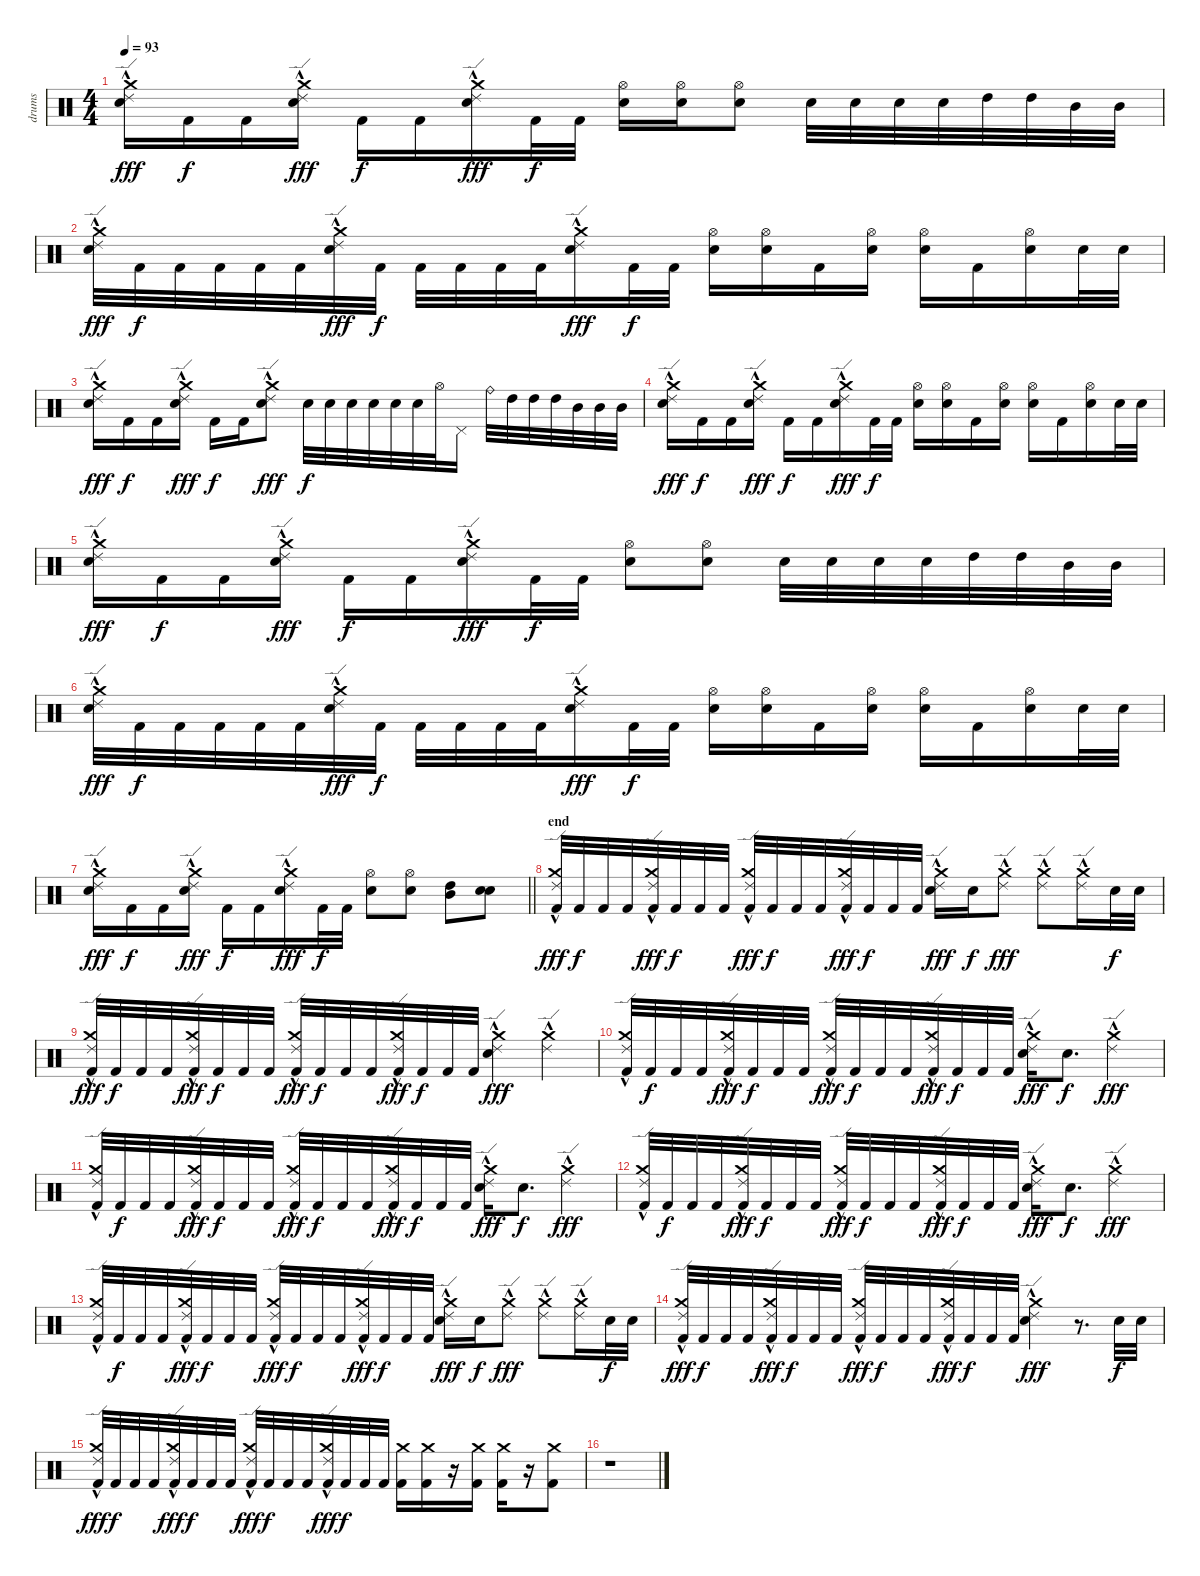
\track ("drums" "drums") {instrument percussion}
\staff {score}
\articulation defaults
\ts (4 4)
\tempo 93
\clef neutral
\ks c
("Electric Snare (hit)" "Ride (edge) 2"{hac} "Crash medium (hit)").16{dy fff} "Kick (hit) 2".16{dy f} "Kick (hit) 2".16 ("Electric Snare (hit)" "Ride (edge) 2"{hac} "Crash medium (hit)").16{dy fff} "Kick (hit) 2".16{dy f} "Kick (hit) 2".16 ("Electric Snare (hit)" "Ride (edge) 2"{hac} "Crash medium (hit)").16{dy fff} "Kick (hit) 2".32{dy f} "Kick (hit) 2".32 ("Electric Snare (hit)" "Hi-Hat (open)").16 ("Electric Snare (hit)" "Hi-Hat (open)").16 ("Electric Snare (hit)" "Hi-Hat (open)").8 "Electric Snare (hit)".32 "Electric Snare (hit)".32 "Electric Snare (hit)".32 "Electric Snare (hit)".32 "High Tom (hit)".32 "High Tom (hit)".32 "Mid Tom (hit)".32 "Mid Tom (hit)".32 |
("Electric Snare (hit)" "Ride (edge) 2"{hac} "Crash medium (hit)").32{dy fff} "Kick (hit) 2".32{dy f} "Kick (hit) 2".32 "Kick (hit) 2".32 "Kick (hit) 2".32 "Kick (hit) 2".32 ("Electric Snare (hit)" "Ride (edge) 2"{hac} "Crash medium (hit)").32{dy fff} "Kick (hit) 2".32{dy f} "Kick (hit) 2".32 "Kick (hit) 2".32 "Kick (hit) 2".32 "Kick (hit) 2".32 ("Electric Snare (hit)" "Ride (edge) 2"{hac} "Crash medium (hit)").16{dy fff} "Kick (hit) 2".32{dy f} "Kick (hit) 2".32 ("Electric Snare (hit)" "Hi-Hat (open)").16 ("Electric Snare (hit)" "Hi-Hat (open)").16 "Kick (hit) 2".16 ("Electric Snare (hit)" "Hi-Hat (open)").16 ("Electric Snare (hit)" "Hi-Hat (open)").16 "Kick (hit) 2".16 ("Electric Snare (hit)" "Hi-Hat (open)").16 "Electric Snare (hit)".32 "Electric Snare (hit)".32 |
("Electric Snare (hit)" "Ride (edge) 2"{hac} "Crash medium (hit)").16{dy fff} "Kick (hit) 2".16{dy f} "Kick (hit) 2".16 ("Electric Snare (hit)" "Ride (edge) 2"{hac} "Crash medium (hit)").16{dy fff} "Kick (hit) 2".16{dy f} "Kick (hit) 2".16 ("Electric Snare (hit)" "Ride (edge) 2"{hac} "Crash medium (hit)").8{dy fff} "Electric Snare (hit)".32{dy f} "Electric Snare (hit)".32 "Electric Snare (hit)".32 "Electric Snare (hit)".32 "Electric Snare (hit)".32 "Electric Snare (hit)".32 "Hi-Hat (open)".32 "Pedal Hi-Hat (hit)".16 "Ride (bell)".32 "High Tom (hit)".32 "High Tom (hit)".32 "High Tom (hit)".32 "Mid Tom (hit)".32 "Mid Tom (hit)".32 "Mid Tom (hit)".32 |
("Electric Snare (hit)" "Ride (edge) 2"{hac} "Crash medium (hit)").16{dy fff} "Kick (hit) 2".16{dy f} "Kick (hit) 2".16 ("Electric Snare (hit)" "Ride (edge) 2"{hac} "Crash medium (hit)").16{dy fff} "Kick (hit) 2".16{dy f} "Kick (hit) 2".16 ("Electric Snare (hit)" "Ride (edge) 2"{hac} "Crash medium (hit)").16{dy fff} "Kick (hit) 2".32{dy f} "Kick (hit) 2".32 ("Electric Snare (hit)" "Hi-Hat (open)").16 ("Electric Snare (hit)" "Hi-Hat (open)").16 "Kick (hit) 2".16 ("Electric Snare (hit)" "Hi-Hat (open)").16 ("Electric Snare (hit)" "Hi-Hat (open)").16 "Kick (hit) 2".16 ("Electric Snare (hit)" "Hi-Hat (open)").16 "Electric Snare (hit)".32 "Electric Snare (hit)".32 |
("Electric Snare (hit)" "Ride (edge) 2"{hac} "Crash medium (hit)").16{dy fff} "Kick (hit) 2".16{dy f} "Kick (hit) 2".16 ("Electric Snare (hit)" "Ride (edge) 2"{hac} "Crash medium (hit)").16{dy fff} "Kick (hit) 2".16{dy f} "Kick (hit) 2".16 ("Electric Snare (hit)" "Ride (edge) 2"{hac} "Crash medium (hit)").16{dy fff} "Kick (hit) 2".32{dy f} "Kick (hit) 2".32 ("Electric Snare (hit)" "Hi-Hat (open)").8 ("Electric Snare (hit)" "Hi-Hat (open)").8 "Electric Snare (hit)".32 "Electric Snare (hit)".32 "Electric Snare (hit)".32 "Electric Snare (hit)".32 "High Tom (hit)".32 "High Tom (hit)".32 "Mid Tom (hit)".32 "Mid Tom (hit)".32 |
("Electric Snare (hit)" "Ride (edge) 2"{hac} "Crash medium (hit)").32{dy fff} "Kick (hit) 2".32{dy f} "Kick (hit) 2".32 "Kick (hit) 2".32 "Kick (hit) 2".32 "Kick (hit) 2".32 ("Electric Snare (hit)" "Ride (edge) 2"{hac} "Crash medium (hit)").32{dy fff} "Kick (hit) 2".32{dy f} "Kick (hit) 2".32 "Kick (hit) 2".32 "Kick (hit) 2".32 "Kick (hit) 2".32 ("Electric Snare (hit)" "Ride (edge) 2"{hac} "Crash medium (hit)").16{dy fff} "Kick (hit) 2".32{dy f} "Kick (hit) 2".32 ("Electric Snare (hit)" "Hi-Hat (open)").16 ("Electric Snare (hit)" "Hi-Hat (open)").16 "Kick (hit) 2".16 ("Electric Snare (hit)" "Hi-Hat (open)").16 ("Electric Snare (hit)" "Hi-Hat (open)").16 "Kick (hit) 2".16 ("Electric Snare (hit)" "Hi-Hat (open)").16 "Electric Snare (hit)".32 "Electric Snare (hit)".32 |
\barLineRight lightlight
("Electric Snare (hit)" "Ride (edge) 2"{hac} "Crash medium (hit)").16{dy fff} "Kick (hit) 2".16{dy f} "Kick (hit) 2".16 ("Electric Snare (hit)" "Ride (edge) 2"{hac} "Crash medium (hit)").16{dy fff} "Kick (hit) 2".16{dy f} "Kick (hit) 2".16 ("Electric Snare (hit)" "Ride (edge) 2"{hac} "Crash medium (hit)").16{dy fff} "Kick (hit) 2".32{dy f} "Kick (hit) 2".32 ("Electric Snare (hit)" "Hi-Hat (open)").8 ("Electric Snare (hit)" "Hi-Hat (open)").8 ("Mid Tom (hit)" "High Tom (hit)").8 ("Electric Snare (hit)" "Electric Snare (hit)").8 |
\section ("" "end")
("Kick (hit) 2" "Ride (edge) 2"{hac} "Crash medium (hit)").32{dy fff} "Kick (hit) 2".32{dy f} "Kick (hit) 2".32 "Kick (hit) 2".32 ("Kick (hit) 2" "Ride (edge) 2"{hac} "Crash medium (hit)").32{dy fff} "Kick (hit) 2".32{dy f} "Kick (hit) 2".32 "Kick (hit) 2".32 ("Kick (hit) 2" "Ride (edge) 2"{hac} "Crash medium (hit)").32{dy fff} "Kick (hit) 2".32{dy f} "Kick (hit) 2".32 "Kick (hit) 2".32 ("Kick (hit) 2" "Ride (edge) 2"{hac} "Crash medium (hit)").32{dy fff} "Kick (hit) 2".32{dy f} "Kick (hit) 2".32 "Kick (hit) 2".32 ("Electric Snare (hit)" "Ride (edge) 2"{hac} "Crash medium (hit)").16{dy fff} "Electric Snare (hit)".16{dy f} ("Ride (edge) 2"{hac} "Crash medium (hit)").8{dy fff} ("Ride (edge) 2"{hac} "Crash medium (hit)").8 ("Ride (edge) 2"{hac} "Crash medium (hit)").16 "Electric Snare (hit)".32{dy f} "Electric Snare (hit)".32 |
("Kick (hit) 2" "Ride (edge) 2"{hac} "Crash medium (hit)").32{dy fff} "Kick (hit) 2".32{dy f} "Kick (hit) 2".32 "Kick (hit) 2".32 ("Kick (hit) 2" "Ride (edge) 2"{hac} "Crash medium (hit)").32{dy fff} "Kick (hit) 2".32{dy f} "Kick (hit) 2".32 "Kick (hit) 2".32 ("Kick (hit) 2" "Ride (edge) 2"{hac} "Crash medium (hit)").32{dy fff} "Kick (hit) 2".32{dy f} "Kick (hit) 2".32 "Kick (hit) 2".32 ("Kick (hit) 2" "Ride (edge) 2"{hac} "Crash medium (hit)").32{dy fff} "Kick (hit) 2".32{dy f} "Kick (hit) 2".32 "Kick (hit) 2".32 ("Electric Snare (hit)" "Ride (edge) 2"{hac} "Crash medium (hit)").4{dy fff} ("Ride (edge) 2"{hac} "Crash medium (hit)").4 |
("Kick (hit) 2" "Ride (edge) 2"{hac} "Crash medium (hit)").32 "Kick (hit) 2".32{dy f} "Kick (hit) 2".32 "Kick (hit) 2".32 ("Kick (hit) 2" "Ride (edge) 2"{hac} "Crash medium (hit)").32{dy fff} "Kick (hit) 2".32{dy f} "Kick (hit) 2".32 "Kick (hit) 2".32 ("Kick (hit) 2" "Ride (edge) 2"{hac} "Crash medium (hit)").32{dy fff} "Kick (hit) 2".32{dy f} "Kick (hit) 2".32 "Kick (hit) 2".32 ("Kick (hit) 2" "Ride (edge) 2"{hac} "Crash medium (hit)").32{dy fff} "Kick (hit) 2".32{dy f} "Kick (hit) 2".32 "Kick (hit) 2".32 ("Electric Snare (hit)" "Ride (edge) 2"{hac} "Crash medium (hit)").16{dy fff} "Electric Snare (hit)".8{d dy f} ("Ride (edge) 2"{hac} "Crash medium (hit)").4{dy fff} |
("Kick (hit) 2" "Ride (edge) 2"{hac} "Crash medium (hit)").32 "Kick (hit) 2".32{dy f} "Kick (hit) 2".32 "Kick (hit) 2".32 ("Kick (hit) 2" "Ride (edge) 2"{hac} "Crash medium (hit)").32{dy fff} "Kick (hit) 2".32{dy f} "Kick (hit) 2".32 "Kick (hit) 2".32 ("Kick (hit) 2" "Ride (edge) 2"{hac} "Crash medium (hit)").32{dy fff} "Kick (hit) 2".32{dy f} "Kick (hit) 2".32 "Kick (hit) 2".32 ("Kick (hit) 2" "Ride (edge) 2"{hac} "Crash medium (hit)").32{dy fff} "Kick (hit) 2".32{dy f} "Kick (hit) 2".32 "Kick (hit) 2".32 ("Electric Snare (hit)" "Ride (edge) 2"{hac} "Crash medium (hit)").16{dy fff} "Electric Snare (hit)".8{d dy f} ("Ride (edge) 2"{hac} "Crash medium (hit)").4{dy fff} |
("Kick (hit) 2" "Ride (edge) 2"{hac} "Crash medium (hit)").32 "Kick (hit) 2".32{dy f} "Kick (hit) 2".32 "Kick (hit) 2".32 ("Kick (hit) 2" "Ride (edge) 2"{hac} "Crash medium (hit)").32{dy fff} "Kick (hit) 2".32{dy f} "Kick (hit) 2".32 "Kick (hit) 2".32 ("Kick (hit) 2" "Ride (edge) 2"{hac} "Crash medium (hit)").32{dy fff} "Kick (hit) 2".32{dy f} "Kick (hit) 2".32 "Kick (hit) 2".32 ("Kick (hit) 2" "Ride (edge) 2"{hac} "Crash medium (hit)").32{dy fff} "Kick (hit) 2".32{dy f} "Kick (hit) 2".32 "Kick (hit) 2".32 ("Electric Snare (hit)" "Ride (edge) 2"{hac} "Crash medium (hit)").16{dy fff} "Electric Snare (hit)".8{d dy f} ("Ride (edge) 2"{hac} "Crash medium (hit)").4{dy fff} |
("Kick (hit) 2" "Ride (edge) 2"{hac} "Crash medium (hit)").32 "Kick (hit) 2".32{dy f} "Kick (hit) 2".32 "Kick (hit) 2".32 ("Kick (hit) 2" "Ride (edge) 2"{hac} "Crash medium (hit)").32{dy fff} "Kick (hit) 2".32{dy f} "Kick (hit) 2".32 "Kick (hit) 2".32 ("Kick (hit) 2" "Ride (edge) 2"{hac} "Crash medium (hit)").32{dy fff} "Kick (hit) 2".32{dy f} "Kick (hit) 2".32 "Kick (hit) 2".32 ("Kick (hit) 2" "Ride (edge) 2"{hac} "Crash medium (hit)").32{dy fff} "Kick (hit) 2".32{dy f} "Kick (hit) 2".32 "Kick (hit) 2".32 ("Electric Snare (hit)" "Ride (edge) 2"{hac} "Crash medium (hit)").16{dy fff} "Electric Snare (hit)".16{dy f} ("Ride (edge) 2"{hac} "Crash medium (hit)").8{dy fff} ("Ride (edge) 2"{hac} "Crash medium (hit)").8 ("Ride (edge) 2"{hac} "Crash medium (hit)").16 "Electric Snare (hit)".32{dy f} "Electric Snare (hit)".32 |
("Kick (hit) 2" "Ride (edge) 2"{hac} "Crash medium (hit)").32{dy fff} "Kick (hit) 2".32{dy f} "Kick (hit) 2".32 "Kick (hit) 2".32 ("Kick (hit) 2" "Ride (edge) 2"{hac} "Crash medium (hit)").32{dy fff} "Kick (hit) 2".32{dy f} "Kick (hit) 2".32 "Kick (hit) 2".32 ("Kick (hit) 2" "Ride (edge) 2"{hac} "Crash medium (hit)").32{dy fff} "Kick (hit) 2".32{dy f} "Kick (hit) 2".32 "Kick (hit) 2".32 ("Kick (hit) 2" "Ride (edge) 2"{hac} "Crash medium (hit)").32{dy fff} "Kick (hit) 2".32{dy f} "Kick (hit) 2".32 "Kick (hit) 2".32 ("Electric Snare (hit)" "Ride (edge) 2"{hac} "Crash medium (hit)").4{dy fff} r.8{d} "Electric Snare (hit)".32{dy f} "Electric Snare (hit)".32 |
("Kick (hit) 2" "Ride (edge) 2"{hac} "Crash medium (hit)").32{dy fff} "Kick (hit) 2".32{dy f} "Kick (hit) 2".32 "Kick (hit) 2".32 ("Kick (hit) 2" "Ride (edge) 2"{hac} "Crash medium (hit)").32{dy fff} "Kick (hit) 2".32{dy f} "Kick (hit) 2".32 "Kick (hit) 2".32 ("Kick (hit) 2" "Ride (edge) 2"{hac} "Crash medium (hit)").32{dy fff} "Kick (hit) 2".32{dy f} "Kick (hit) 2".32 "Kick (hit) 2".32 ("Kick (hit) 2" "Ride (edge) 2"{hac} "Crash medium (hit)").32{dy fff} "Kick (hit) 2".32{dy f} "Kick (hit) 2".32 "Kick (hit) 2".32 ("Kick (hit) 2" "Crash medium (hit)").16 ("Kick (hit) 2" "Crash medium (hit)").16 r.16 ("Kick (hit) 2" "Crash medium (hit)").16 ("Kick (hit) 2" "Crash medium (hit)").16 r.16 ("Kick (hit) 2" "Crash medium (hit)").8 |
r.1
